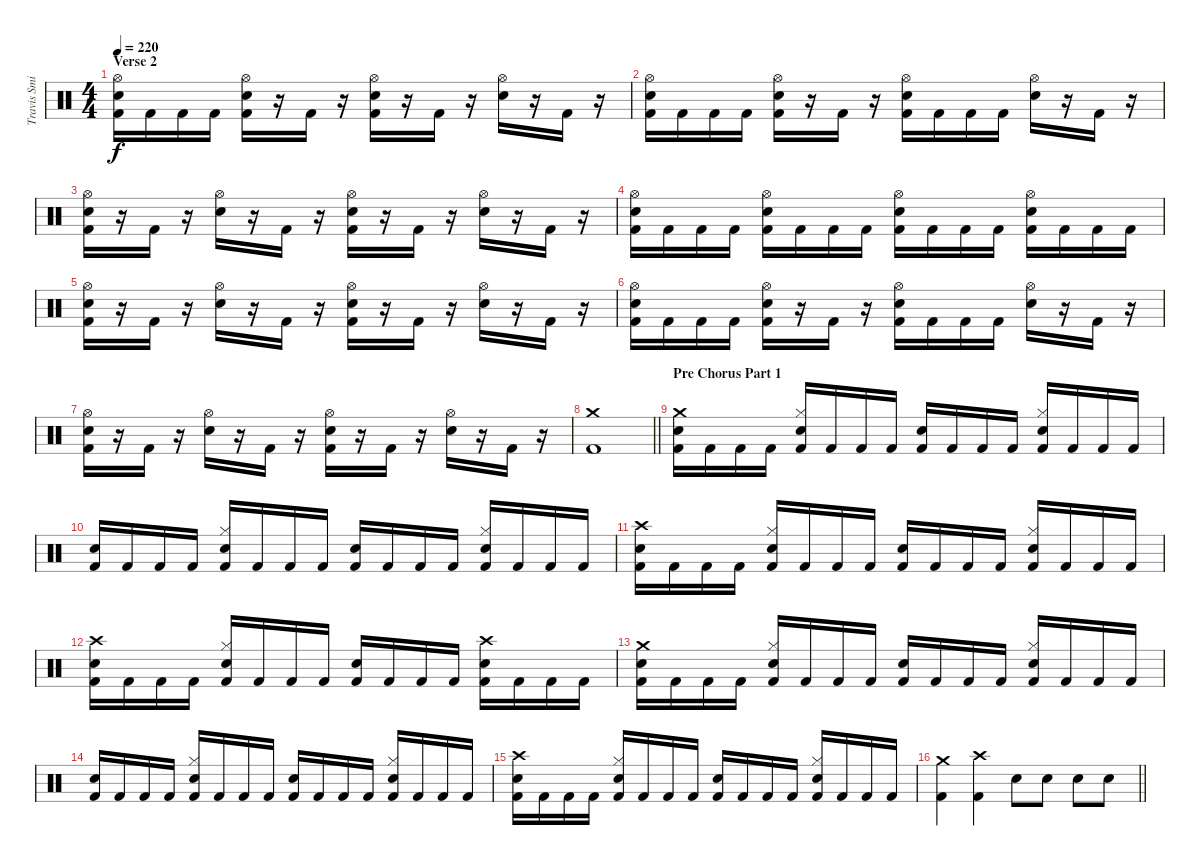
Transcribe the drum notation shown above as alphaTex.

\track ("Travis Smith" "Travis Smi") {instrument percussion}
\staff {score}
\articulation defaults
\ts (4 4)
\section ("" "Verse 2")
\tempo 220
\clef neutral
\ks c
("Hi-Hat (open)" "Electric Snare (hit)" "Kick (hit) 2").16{dy f} "Kick (hit) 2".16 "Kick (hit) 2".16 "Kick (hit) 2".16 ("Hi-Hat (open)" "Electric Snare (hit)" "Kick (hit) 2").16 r.16 "Kick (hit) 2".16 r.16 ("Hi-Hat (open)" "Electric Snare (hit)" "Kick (hit) 2").16 r.16 "Kick (hit) 2".16 r.16 ("Hi-Hat (open)" "Electric Snare (hit)").16 r.16 "Kick (hit) 2".16 r.16 |
("Hi-Hat (open)" "Electric Snare (hit)" "Kick (hit) 2").16 "Kick (hit) 2".16 "Kick (hit) 2".16 "Kick (hit) 2".16 ("Hi-Hat (open)" "Electric Snare (hit)" "Kick (hit) 2").16 r.16 "Kick (hit) 2".16 r.16 ("Hi-Hat (open)" "Electric Snare (hit)" "Kick (hit) 2").16 "Kick (hit) 2".16 "Kick (hit) 2".16 "Kick (hit) 2".16 ("Hi-Hat (open)" "Electric Snare (hit)").16 r.16 "Kick (hit) 2".16 r.16 |
("Hi-Hat (open)" "Electric Snare (hit)" "Kick (hit) 2").16 r.16 "Kick (hit) 2".16 r.16 ("Hi-Hat (open)" "Electric Snare (hit)").16 r.16 "Kick (hit) 2".16 r.16 ("Hi-Hat (open)" "Electric Snare (hit)" "Kick (hit) 2").16 r.16 "Kick (hit) 2".16 r.16 ("Hi-Hat (open)" "Electric Snare (hit)").16 r.16 "Kick (hit) 2".16 r.16 |
("Hi-Hat (open)" "Electric Snare (hit)" "Kick (hit) 2").16 "Kick (hit) 2".16 "Kick (hit) 2".16 "Kick (hit) 2".16 ("Hi-Hat (open)" "Electric Snare (hit)" "Kick (hit) 2").16 "Kick (hit) 2".16 "Kick (hit) 2".16 "Kick (hit) 2".16 ("Hi-Hat (open)" "Electric Snare (hit)" "Kick (hit) 2").16 "Kick (hit) 2".16 "Kick (hit) 2".16 "Kick (hit) 2".16 ("Hi-Hat (open)" "Electric Snare (hit)" "Kick (hit) 2").16 "Kick (hit) 2".16 "Kick (hit) 2".16 "Kick (hit) 2".16 |
("Hi-Hat (open)" "Electric Snare (hit)" "Kick (hit) 2").16 r.16 "Kick (hit) 2".16 r.16 ("Hi-Hat (open)" "Electric Snare (hit)").16 r.16 "Kick (hit) 2".16 r.16 ("Hi-Hat (open)" "Electric Snare (hit)" "Kick (hit) 2").16 r.16 "Kick (hit) 2".16 r.16 ("Hi-Hat (open)" "Electric Snare (hit)").16 r.16 "Kick (hit) 2".16 r.16 |
("Hi-Hat (open)" "Electric Snare (hit)" "Kick (hit) 2").16 "Kick (hit) 2".16 "Kick (hit) 2".16 "Kick (hit) 2".16 ("Hi-Hat (open)" "Electric Snare (hit)" "Kick (hit) 2").16 r.16 "Kick (hit) 2".16 r.16 ("Hi-Hat (open)" "Electric Snare (hit)" "Kick (hit) 2").16 "Kick (hit) 2".16 "Kick (hit) 2".16 "Kick (hit) 2".16 ("Hi-Hat (open)" "Electric Snare (hit)").16 r.16 "Kick (hit) 2".16 r.16 |
("Hi-Hat (open)" "Electric Snare (hit)" "Kick (hit) 2").16 r.16 "Kick (hit) 2".16 r.16 ("Hi-Hat (open)" "Electric Snare (hit)").16 r.16 "Kick (hit) 2".16 r.16 ("Hi-Hat (open)" "Electric Snare (hit)" "Kick (hit) 2").16 r.16 "Kick (hit) 2".16 r.16 ("Hi-Hat (open)" "Electric Snare (hit)").16 r.16 "Kick (hit) 2".16 r.16 |
\barLineRight lightlight
("Crash medium (hit)" "Kick (hit) 2").1 |
\section ("" "Pre Chorus Part 1")
("Crash medium (hit)" "Electric Snare (hit)" "Kick (hit) 2").16 "Kick (hit) 2".16 "Kick (hit) 2".16 "Kick (hit) 2".16 ("Hi-Hat (closed)" "Snare (hit) 2" "Kick (hit) 2").16 "Kick (hit) 2".16 "Kick (hit) 2".16 "Kick (hit) 2".16 ("Electric Snare (hit)" "Kick (hit) 2").16 "Kick (hit) 2".16 "Kick (hit) 2".16 "Kick (hit) 2".16 ("Hi-Hat (closed)" "Snare (hit) 2" "Kick (hit) 2").16 "Kick (hit) 2".16 "Kick (hit) 2".16 "Kick (hit) 2".16 |
("Electric Snare (hit)" "Kick (hit) 2").16 "Kick (hit) 2".16 "Kick (hit) 2".16 "Kick (hit) 2".16 ("Hi-Hat (closed)" "Snare (hit) 2" "Kick (hit) 2").16 "Kick (hit) 2".16 "Kick (hit) 2".16 "Kick (hit) 2".16 ("Electric Snare (hit)" "Kick (hit) 2").16 "Kick (hit) 2".16 "Kick (hit) 2".16 "Kick (hit) 2".16 ("Hi-Hat (closed)" "Snare (hit) 2" "Kick (hit) 2").16 "Kick (hit) 2".16 "Kick (hit) 2".16 "Kick (hit) 2".16 |
("Crash high (hit)" "Electric Snare (hit)" "Kick (hit) 2").16 "Kick (hit) 2".16 "Kick (hit) 2".16 "Kick (hit) 2".16 ("Hi-Hat (closed)" "Snare (hit) 2" "Kick (hit) 2").16 "Kick (hit) 2".16 "Kick (hit) 2".16 "Kick (hit) 2".16 ("Electric Snare (hit)" "Kick (hit) 2").16 "Kick (hit) 2".16 "Kick (hit) 2".16 "Kick (hit) 2".16 ("Hi-Hat (closed)" "Snare (hit) 2" "Kick (hit) 2").16 "Kick (hit) 2".16 "Kick (hit) 2".16 "Kick (hit) 2".16 |
("Crash high (hit)" "Electric Snare (hit)" "Kick (hit) 2").16 "Kick (hit) 2".16 "Kick (hit) 2".16 "Kick (hit) 2".16 ("Hi-Hat (closed)" "Snare (hit) 2" "Kick (hit) 2").16 "Kick (hit) 2".16 "Kick (hit) 2".16 "Kick (hit) 2".16 ("Electric Snare (hit)" "Kick (hit) 2").16 "Kick (hit) 2".16 "Kick (hit) 2".16 "Kick (hit) 2".16 ("Crash high (hit)" "Snare (hit) 2" "Kick (hit) 2").16 "Kick (hit) 2".16 "Kick (hit) 2".16 "Kick (hit) 2".16 |
("Crash medium (hit)" "Electric Snare (hit)" "Kick (hit) 2").16 "Kick (hit) 2".16 "Kick (hit) 2".16 "Kick (hit) 2".16 ("Hi-Hat (closed)" "Snare (hit) 2" "Kick (hit) 2").16 "Kick (hit) 2".16 "Kick (hit) 2".16 "Kick (hit) 2".16 ("Electric Snare (hit)" "Kick (hit) 2").16 "Kick (hit) 2".16 "Kick (hit) 2".16 "Kick (hit) 2".16 ("Hi-Hat (closed)" "Snare (hit) 2" "Kick (hit) 2").16 "Kick (hit) 2".16 "Kick (hit) 2".16 "Kick (hit) 2".16 |
("Electric Snare (hit)" "Kick (hit) 2").16 "Kick (hit) 2".16 "Kick (hit) 2".16 "Kick (hit) 2".16 ("Hi-Hat (closed)" "Snare (hit) 2" "Kick (hit) 2").16 "Kick (hit) 2".16 "Kick (hit) 2".16 "Kick (hit) 2".16 ("Electric Snare (hit)" "Kick (hit) 2").16 "Kick (hit) 2".16 "Kick (hit) 2".16 "Kick (hit) 2".16 ("Hi-Hat (closed)" "Snare (hit) 2" "Kick (hit) 2").16 "Kick (hit) 2".16 "Kick (hit) 2".16 "Kick (hit) 2".16 |
("Crash high (hit)" "Electric Snare (hit)" "Kick (hit) 2").16 "Kick (hit) 2".16 "Kick (hit) 2".16 "Kick (hit) 2".16 ("Hi-Hat (closed)" "Snare (hit) 2" "Kick (hit) 2").16 "Kick (hit) 2".16 "Kick (hit) 2".16 "Kick (hit) 2".16 ("Electric Snare (hit)" "Kick (hit) 2").16 "Kick (hit) 2".16 "Kick (hit) 2".16 "Kick (hit) 2".16 ("Hi-Hat (closed)" "Snare (hit) 2" "Kick (hit) 2").16 "Kick (hit) 2".16 "Kick (hit) 2".16 "Kick (hit) 2".16 |
\barLineRight lightlight
("Crash medium (hit)" "Kick (hit) 2").4 ("Crash high (hit)" "Kick (hit) 2").4 "Electric Snare (hit)".8 "Electric Snare (hit)".8 "Electric Snare (hit)".8 "Electric Snare (hit)".8
